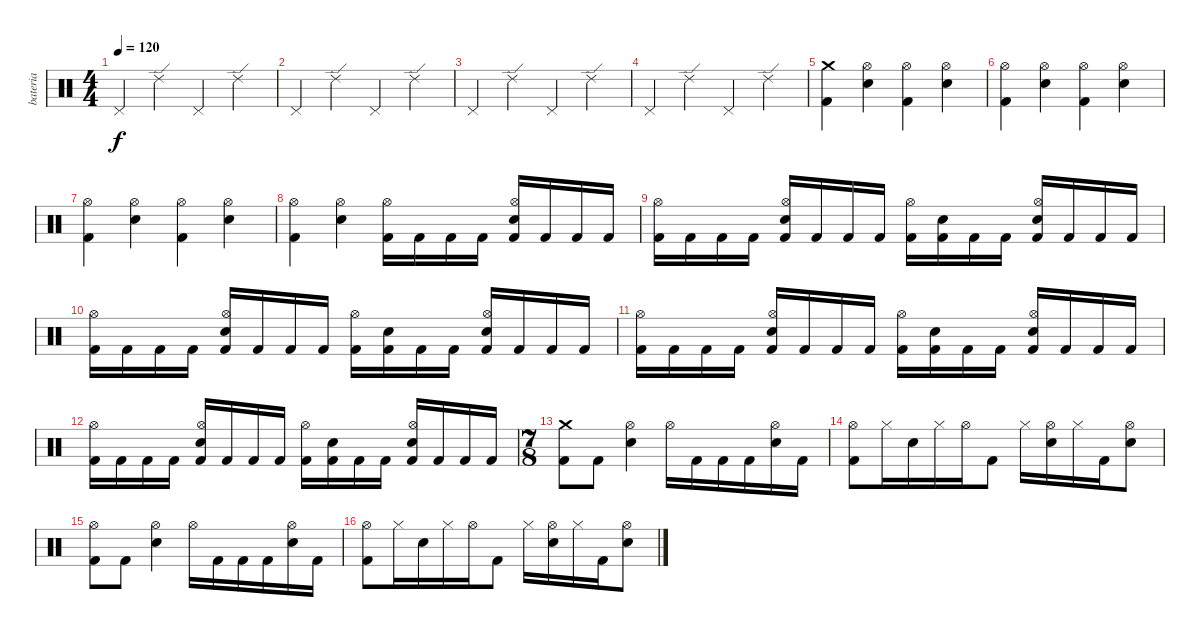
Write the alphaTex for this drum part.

\track ("bateria" "bateria") {instrument percussion}
\staff {score}
\articulation defaults
\ts (4 4)
\tempo 120
\clef neutral
\ks c "Pedal Hi-Hat (hit)".4{dy f} "Ride (edge) 2".4 "Pedal Hi-Hat (hit)".4 "Ride (edge) 2".4
|
"Pedal Hi-Hat (hit)".4 "Ride (edge) 2".4 "Pedal Hi-Hat (hit)".4 "Ride (edge) 2".4 |
"Pedal Hi-Hat (hit)".4 "Ride (edge) 2".4 "Pedal Hi-Hat (hit)".4 "Ride (edge) 2".4 |
"Pedal Hi-Hat (hit)".4 "Ride (edge) 2".4 "Pedal Hi-Hat (hit)".4 "Ride (edge) 2".4 |
("Crash medium (hit)" "Kick (hit) 2").4 ("Hi-Hat (open)" "Electric Snare (hit)").4 ("Hi-Hat (open)" "Kick (hit) 2").4 ("Hi-Hat (open)" "Electric Snare (hit)").4 |
("Hi-Hat (open)" "Kick (hit) 2").4 ("Hi-Hat (open)" "Electric Snare (hit)").4 ("Hi-Hat (open)" "Kick (hit) 2").4 ("Hi-Hat (open)" "Electric Snare (hit)").4 |
("Hi-Hat (open)" "Kick (hit) 2").4 ("Hi-Hat (open)" "Electric Snare (hit)").4 ("Hi-Hat (open)" "Kick (hit) 2").4 ("Hi-Hat (open)" "Electric Snare (hit)").4 |
("Hi-Hat (open)" "Kick (hit) 2").4 ("Hi-Hat (open)" "Electric Snare (hit)").4 ("Hi-Hat (open)" "Kick (hit) 2").16 "Kick (hit) 2".16 "Kick (hit) 2".16 "Kick (hit) 2".16 ("Hi-Hat (open)" "Electric Snare (hit)" "Kick (hit) 2").16 "Kick (hit) 2".16 "Kick (hit) 2".16 "Kick (hit) 2".16 |
("Hi-Hat (open)" "Kick (hit) 2").16 "Kick (hit) 2".16 "Kick (hit) 2".16 "Kick (hit) 2".16 ("Hi-Hat (open)" "Electric Snare (hit)" "Kick (hit) 2").16 "Kick (hit) 2".16 "Kick (hit) 2".16 "Kick (hit) 2".16 ("Hi-Hat (open)" "Kick (hit) 2").16 ("Electric Snare (hit)" "Kick (hit) 2").16 "Kick (hit) 2".16 "Kick (hit) 2".16 ("Hi-Hat (open)" "Electric Snare (hit)" "Kick (hit) 2").16 "Kick (hit) 2".16 "Kick (hit) 2".16 "Kick (hit) 2".16 |
("Hi-Hat (open)" "Kick (hit) 2").16 "Kick (hit) 2".16 "Kick (hit) 2".16 "Kick (hit) 2".16 ("Hi-Hat (open)" "Electric Snare (hit)" "Kick (hit) 2").16 "Kick (hit) 2".16 "Kick (hit) 2".16 "Kick (hit) 2".16 ("Hi-Hat (open)" "Kick (hit) 2").16 ("Electric Snare (hit)" "Kick (hit) 2").16 "Kick (hit) 2".16 "Kick (hit) 2".16 ("Hi-Hat (open)" "Electric Snare (hit)" "Kick (hit) 2").16 "Kick (hit) 2".16 "Kick (hit) 2".16 "Kick (hit) 2".16 |
("Hi-Hat (open)" "Kick (hit) 2").16 "Kick (hit) 2".16 "Kick (hit) 2".16 "Kick (hit) 2".16 ("Hi-Hat (open)" "Electric Snare (hit)" "Kick (hit) 2").16 "Kick (hit) 2".16 "Kick (hit) 2".16 "Kick (hit) 2".16 ("Hi-Hat (open)" "Kick (hit) 2").16 ("Electric Snare (hit)" "Kick (hit) 2").16 "Kick (hit) 2".16 "Kick (hit) 2".16 ("Hi-Hat (open)" "Electric Snare (hit)" "Kick (hit) 2").16 "Kick (hit) 2".16 "Kick (hit) 2".16 "Kick (hit) 2".16 |
("Hi-Hat (open)" "Kick (hit) 2").16 "Kick (hit) 2".16 "Kick (hit) 2".16 "Kick (hit) 2".16 ("Hi-Hat (open)" "Electric Snare (hit)" "Kick (hit) 2").16 "Kick (hit) 2".16 "Kick (hit) 2".16 "Kick (hit) 2".16 ("Hi-Hat (open)" "Kick (hit) 2").16 ("Electric Snare (hit)" "Kick (hit) 2").16 "Kick (hit) 2".16 "Kick (hit) 2".16 ("Hi-Hat (open)" "Electric Snare (hit)" "Kick (hit) 2").16 "Kick (hit) 2".16 "Kick (hit) 2".16 "Kick (hit) 2".16 |
\ts (7 8)
("Crash medium (hit)" "Kick (hit) 2").8 "Kick (hit) 2".8 ("Hi-Hat (open)" "Electric Snare (hit)").4 "Hi-Hat (open)".16 "Kick (hit) 2".16 "Kick (hit) 2".16 "Kick (hit) 2".16 ("Hi-Hat (open)" "Electric Snare (hit)").16 "Kick (hit) 2".16 |
("Hi-Hat (open)" "Kick (hit) 2").8 "Hi-Hat (closed)".16 "Electric Snare (hit)".16 "Hi-Hat (closed)".16 "Hi-Hat (open)".16 "Kick (hit) 2".8 "Hi-Hat (closed)".16 ("Hi-Hat (open)" "Electric Snare (hit)").16 "Hi-Hat (closed)".16 "Kick (hit) 2".16 ("Hi-Hat (open)" "Electric Snare (hit)").8 |
("Hi-Hat (open)" "Kick (hit) 2").8 "Kick (hit) 2".8 ("Hi-Hat (open)" "Electric Snare (hit)").4 "Hi-Hat (open)".16 "Kick (hit) 2".16 "Kick (hit) 2".16 "Kick (hit) 2".16 ("Hi-Hat (open)" "Electric Snare (hit)").16 "Kick (hit) 2".16 |
("Hi-Hat (open)" "Kick (hit) 2").8 "Hi-Hat (closed)".16 "Electric Snare (hit)".16 "Hi-Hat (closed)".16 "Hi-Hat (open)".16 "Kick (hit) 2".8 "Hi-Hat (closed)".16 ("Hi-Hat (open)" "Electric Snare (hit)").16 "Hi-Hat (closed)".16 "Kick (hit) 2".16 ("Hi-Hat (open)" "Electric Snare (hit)").8
